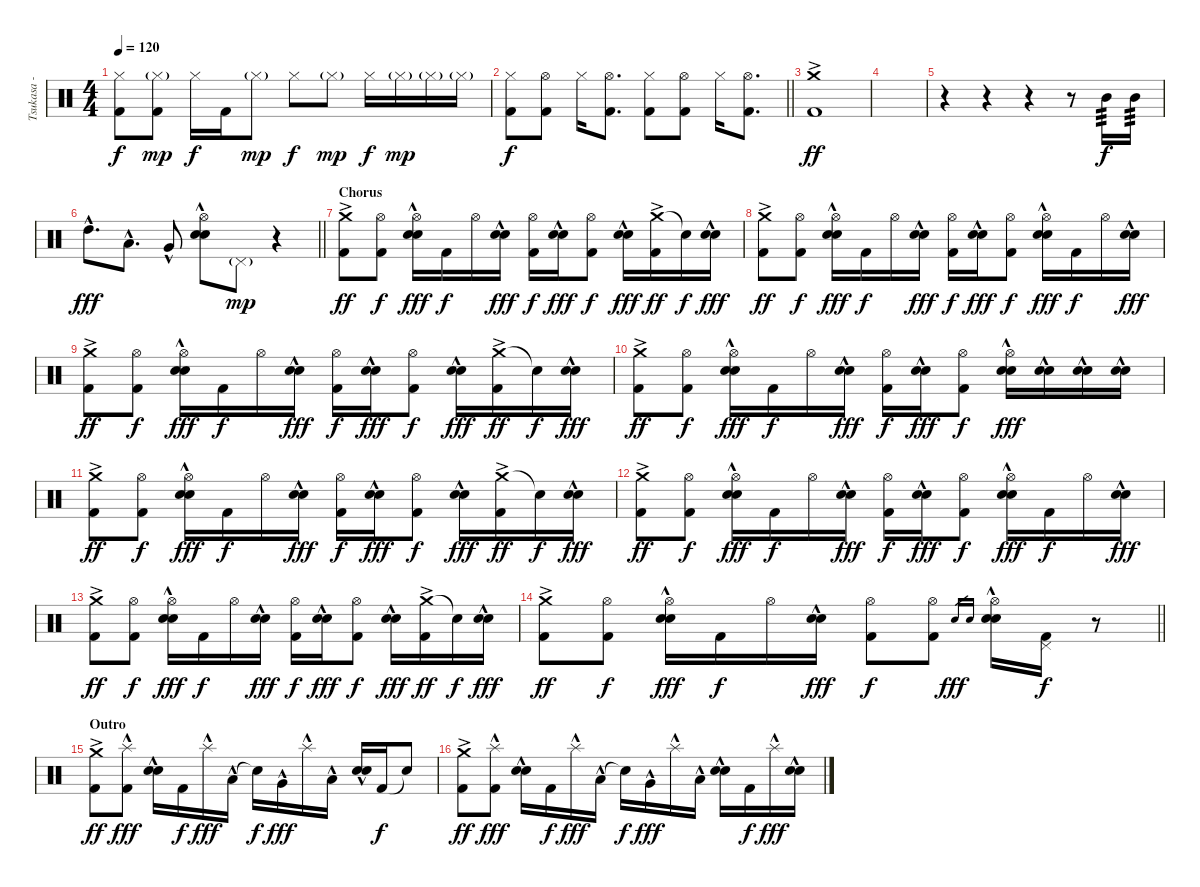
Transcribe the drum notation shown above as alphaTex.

\track ("Tsukasa - Drums" "Tsukasa - ") {instrument percussion}
\staff {score}
\articulation defaults
\ts (4 4)
\tempo 120
\clef neutral
\ks c
("Hi-Hat (closed)" "Kick (hit) 2").8{dy f} ("Hi-Hat (closed)"{g} "Kick (hit) 2").8{dy mp} "Hi-Hat (closed)".16{dy f} "Kick (hit) 2".16 "Hi-Hat (closed)"{g}.8{dy mp} "Hi-Hat (closed)".8{dy f} "Hi-Hat (closed)"{g}.8{dy mp} "Hi-Hat (closed)".16{dy f} "Hi-Hat (closed)"{g}.16{dy mp} "Hi-Hat (closed)"{g}.16 "Hi-Hat (closed)"{g}.16 |
\barLineRight lightlight
("Hi-Hat (closed)" "Kick (hit) 2").8{dy f} ("Hi-Hat (open)" "Kick (hit) 2").8 "Hi-Hat (closed)".16 ("Hi-Hat (open)" "Kick (hit) 2").8{d} ("Hi-Hat (closed)" "Kick (hit) 2").8 ("Hi-Hat (open)" "Kick (hit) 2").8 "Hi-Hat (closed)".16 ("Hi-Hat (open)" "Kick (hit) 2").8{d} |
\section ("" "")
("Crash medium (hit)"{ac} "Kick (hit) 2").1{dy ff} |
|
r.4 r.4 r.4 r.8 "Mid Tom (hit)".16{tp 3 dy f} "Mid Tom (hit)".16{tp 3} |
\barLineRight lightlight "High Tom (hit)"{hac}.8{d dy fff} "Low Tom (hit)"{hac}.8{d} "Very Low Tom (hit)"{hac}.8
("Hi-Hat (open)" "Electric Snare (hit)"{hac} "Snare (hit) 2"{hac}).8 "Pedal Hi-Hat (hit)"{g}.8{dy mp} r.4 |
\section ("" "Chorus")
("Crash medium (hit)"{ac} "Kick (hit) 2").8{dy ff} ("Hi-Hat (open)" "Kick (hit) 2").8{dy f} ("Hi-Hat (open)" "Electric Snare (hit)"{hac} "Snare (hit) 2"{hac}).16{dy fff} "Kick (hit) 2".16{dy f} "Hi-Hat (open)".16 ("Electric Snare (hit)"{hac} "Snare (hit) 2"{hac}).16{dy fff} ("Hi-Hat (open)" "Kick (hit) 2").16{dy f} ("Electric Snare (hit)"{hac} "Snare (hit) 2"{hac}).16{dy fff} ("Hi-Hat (open)" "Kick (hit) 2").8{dy f} ("Electric Snare (hit)"{hac} "Snare (hit) 2"{hac}).16{dy fff} ("Crash medium (hit)"{ac} "Kick (hit) 2").16{dy ff} "Snare (hit)"{t}.16{dy f} ("Electric Snare (hit)"{hac} "Snare (hit) 2"{hac}).16{dy fff} |
("Crash medium (hit)"{ac} "Kick (hit) 2").8{dy ff} ("Hi-Hat (open)" "Kick (hit) 2").8{dy f} ("Hi-Hat (open)" "Electric Snare (hit)"{hac} "Snare (hit) 2"{hac}).16{dy fff} "Kick (hit) 2".16{dy f} "Hi-Hat (open)".16 ("Electric Snare (hit)"{hac} "Snare (hit) 2"{hac}).16{dy fff} ("Hi-Hat (open)" "Kick (hit) 2").16{dy f} ("Electric Snare (hit)"{hac} "Snare (hit) 2"{hac}).16{dy fff} ("Hi-Hat (open)" "Kick (hit) 2").8{dy f} ("Hi-Hat (open)" "Electric Snare (hit)"{hac} "Snare (hit) 2"{hac}).16{dy fff} "Kick (hit) 2".16{dy f} "Hi-Hat (open)".16 ("Electric Snare (hit)"{hac} "Snare (hit) 2"{hac}).16{dy fff} |
("Crash medium (hit)"{ac} "Kick (hit) 2").8{dy ff} ("Hi-Hat (open)" "Kick (hit) 2").8{dy f} ("Hi-Hat (open)" "Electric Snare (hit)"{hac} "Snare (hit) 2"{hac}).16{dy fff} "Kick (hit) 2".16{dy f} "Hi-Hat (open)".16 ("Electric Snare (hit)"{hac} "Snare (hit) 2"{hac}).16{dy fff} ("Hi-Hat (open)" "Kick (hit) 2").16{dy f} ("Electric Snare (hit)"{hac} "Snare (hit) 2"{hac}).16{dy fff} ("Hi-Hat (open)" "Kick (hit) 2").8{dy f} ("Electric Snare (hit)"{hac} "Snare (hit) 2"{hac}).16{dy fff} ("Crash medium (hit)"{ac} "Kick (hit) 2").16{dy ff} "Snare (hit)"{t}.16{dy f} ("Electric Snare (hit)"{hac} "Snare (hit) 2"{hac}).16{dy fff} |
("Crash medium (hit)"{ac} "Kick (hit) 2").8{dy ff} ("Hi-Hat (open)" "Kick (hit) 2").8{dy f} ("Hi-Hat (open)" "Electric Snare (hit)"{hac} "Snare (hit) 2"{hac}).16{dy fff} "Kick (hit) 2".16{dy f} "Hi-Hat (open)".16 ("Electric Snare (hit)"{hac} "Snare (hit) 2"{hac}).16{dy fff} ("Hi-Hat (open)" "Kick (hit) 2").16{dy f} ("Electric Snare (hit)"{hac} "Snare (hit) 2"{hac}).16{dy fff} ("Hi-Hat (open)" "Kick (hit) 2").8{dy f} ("Hi-Hat (open)" "Electric Snare (hit)"{hac} "Snare (hit) 2"{hac}).16{dy fff} ("Electric Snare (hit)"{hac} "Snare (hit) 2"{hac}).16 ("Electric Snare (hit)"{hac} "Snare (hit) 2"{hac}).16 ("Electric Snare (hit)"{hac} "Snare (hit) 2"{hac}).16 |
("Crash medium (hit)"{ac} "Kick (hit) 2").8{dy ff} ("Hi-Hat (open)" "Kick (hit) 2").8{dy f} ("Hi-Hat (open)" "Electric Snare (hit)"{hac} "Snare (hit) 2"{hac}).16{dy fff} "Kick (hit) 2".16{dy f} "Hi-Hat (open)".16 ("Electric Snare (hit)"{hac} "Snare (hit) 2"{hac}).16{dy fff} ("Hi-Hat (open)" "Kick (hit) 2").16{dy f} ("Electric Snare (hit)"{hac} "Snare (hit) 2"{hac}).16{dy fff} ("Hi-Hat (open)" "Kick (hit) 2").8{dy f} ("Electric Snare (hit)"{hac} "Snare (hit) 2"{hac}).16{dy fff} ("Crash medium (hit)"{ac} "Kick (hit) 2").16{dy ff} "Snare (hit)"{t}.16{dy f} ("Electric Snare (hit)"{hac} "Snare (hit) 2"{hac}).16{dy fff} |
("Crash medium (hit)"{ac} "Kick (hit) 2").8{dy ff} ("Hi-Hat (open)" "Kick (hit) 2").8{dy f} ("Hi-Hat (open)" "Electric Snare (hit)"{hac} "Snare (hit) 2"{hac}).16{dy fff} "Kick (hit) 2".16{dy f} "Hi-Hat (open)".16 ("Electric Snare (hit)"{hac} "Snare (hit) 2"{hac}).16{dy fff} ("Hi-Hat (open)" "Kick (hit) 2").16{dy f} ("Electric Snare (hit)"{hac} "Snare (hit) 2"{hac}).16{dy fff} ("Hi-Hat (open)" "Kick (hit) 2").8{dy f} ("Hi-Hat (open)" "Electric Snare (hit)"{hac} "Snare (hit) 2"{hac}).16{dy fff} "Kick (hit) 2".16{dy f} "Hi-Hat (open)".16 ("Electric Snare (hit)"{hac} "Snare (hit) 2"{hac}).16{dy fff} |
("Crash medium (hit)"{ac} "Kick (hit) 2").8{dy ff} ("Hi-Hat (open)" "Kick (hit) 2").8{dy f} ("Hi-Hat (open)" "Electric Snare (hit)"{hac} "Snare (hit) 2"{hac}).16{dy fff} "Kick (hit) 2".16{dy f} "Hi-Hat (open)".16 ("Electric Snare (hit)"{hac} "Snare (hit) 2"{hac}).16{dy fff} ("Hi-Hat (open)" "Kick (hit) 2").16{dy f} ("Electric Snare (hit)"{hac} "Snare (hit) 2"{hac}).16{dy fff} ("Hi-Hat (open)" "Kick (hit) 2").8{dy f} ("Electric Snare (hit)"{hac} "Snare (hit) 2"{hac}).16{dy fff} ("Crash medium (hit)"{ac} "Kick (hit) 2").16{dy ff} "Snare (hit)"{t}.16{dy f} ("Electric Snare (hit)"{hac} "Snare (hit) 2"{hac}).16{dy fff} |
\barLineRight lightlight
("Crash medium (hit)"{ac} "Kick (hit) 2").8{dy ff} ("Hi-Hat (open)" "Kick (hit) 2").8{dy f} ("Hi-Hat (open)" "Electric Snare (hit)"{hac} "Snare (hit) 2"{hac}).16{dy fff} "Kick (hit) 2".16{dy f} "Hi-Hat (open)".16 ("Electric Snare (hit)"{hac} "Snare (hit) 2"{hac}).16{dy fff} ("Hi-Hat (open)" "Kick (hit) 2").8{dy f} ("Hi-Hat (open)" "Kick (hit) 2").8 "Electric Snare (hit)".16{gr dy fff} "Snare (hit) 2".16{gr} ("Hi-Hat (open)" "Electric Snare (hit)"{hac} "Snare (hit) 2"{hac}).16 ("Pedal Hi-Hat (hit)" "Kick (hit) 2").16{dy f} r.8 |
\section ("" "Outro")
("Crash medium (hit)"{ac} "Kick (hit) 2").8{dy ff} ("Splash (hit)"{hac} "Kick (hit) 2").8{dy fff} ("Electric Snare (hit)"{hac} "Snare (hit) 2"{hac}).16 "Kick (hit) 2".16{dy f} "Splash (hit)"{hac}.16{dy fff} "Low Tom (hit)"{hac}.16 "Snare (hit)"{t}.16{dy f} "Very Low Tom (hit)"{hac}.16{dy fff} "Splash (hit)"{hac}.16 "Low Floor Tom (hit)"{hac}.16 ("Electric Snare (hit)"{hac} "Snare (hit) 2"{hac}).16 "Kick (hit) 2".16{dy f} "Snare (hit)"{t}.8 |
("Crash medium (hit)"{ac} "Kick (hit) 2").8{dy ff} ("Splash (hit)"{hac} "Kick (hit) 2").8{dy fff} ("Electric Snare (hit)"{hac} "Snare (hit) 2"{hac}).16 "Kick (hit) 2".16{dy f} "Splash (hit)"{hac}.16{dy fff} "Low Tom (hit)"{hac}.16 "Snare (hit)"{t}.16{dy f} "Very Low Tom (hit)"{hac}.16{dy fff} "Splash (hit)"{hac}.16 "Low Floor Tom (hit)"{hac}.16 ("Electric Snare (hit)"{hac} "Snare (hit) 2"{hac}).16 "Kick (hit) 2".16{dy f} "Splash (hit)"{hac}.16{dy fff} ("Electric Snare (hit)"{hac} "Snare (hit) 2"{hac}).16
